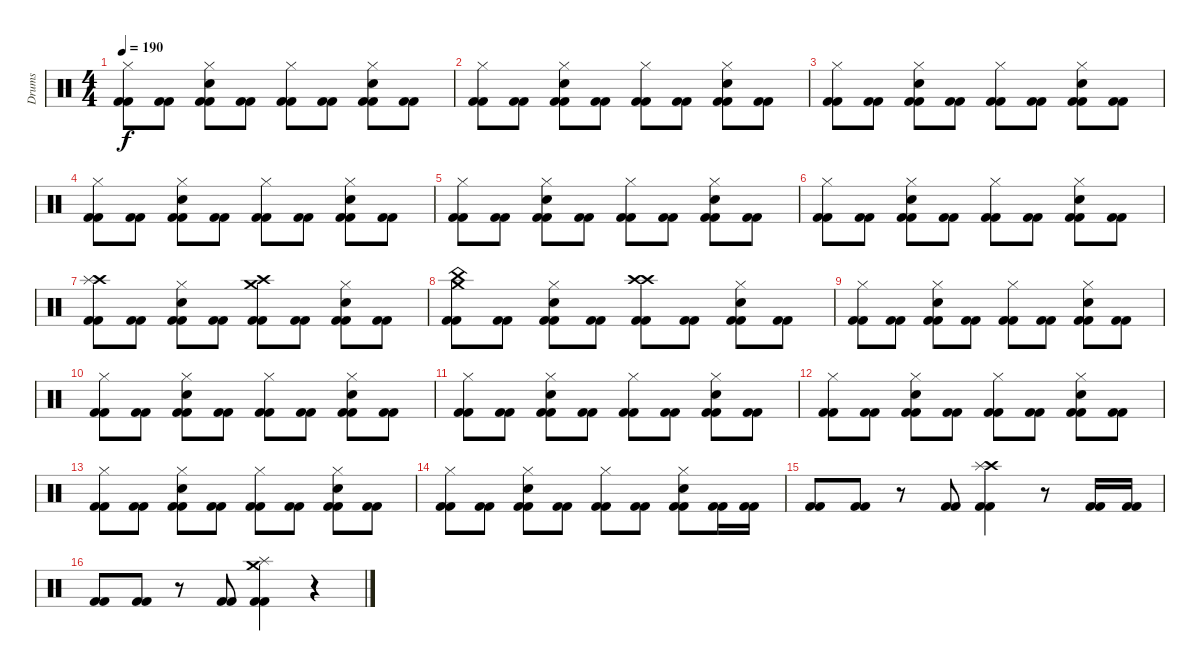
\track ("Drums" "Drums") {instrument percussion}
\staff {score}
\articulation defaults
\ts (4 4)
\tempo 190
\clef neutral
\ks c
("Hi-Hat (closed)" "Kick (hit) 2" "Kick (hit) 2").8{dy f} ("Kick (hit) 2" "Kick (hit) 2").8 ("Hi-Hat (closed)" "Snare (hit) 2" "Kick (hit) 2" "Kick (hit) 2").8 ("Kick (hit) 2" "Kick (hit) 2").8 ("Hi-Hat (closed)" "Kick (hit) 2" "Kick (hit) 2").8 ("Kick (hit) 2" "Kick (hit) 2").8 ("Hi-Hat (closed)" "Snare (hit) 2" "Kick (hit) 2" "Kick (hit) 2").8 ("Kick (hit) 2" "Kick (hit) 2").8 |
("Hi-Hat (closed)" "Kick (hit) 2" "Kick (hit) 2").8 ("Kick (hit) 2" "Kick (hit) 2").8 ("Hi-Hat (closed)" "Snare (hit) 2" "Kick (hit) 2" "Kick (hit) 2").8 ("Kick (hit) 2" "Kick (hit) 2").8 ("Hi-Hat (closed)" "Kick (hit) 2" "Kick (hit) 2").8 ("Kick (hit) 2" "Kick (hit) 2").8 ("Hi-Hat (closed)" "Snare (hit) 2" "Kick (hit) 2" "Kick (hit) 2").8 ("Kick (hit) 2" "Kick (hit) 2").8 |
("Hi-Hat (closed)" "Kick (hit) 2" "Kick (hit) 2").8 ("Kick (hit) 2" "Kick (hit) 2").8 ("Hi-Hat (closed)" "Snare (hit) 2" "Kick (hit) 2" "Kick (hit) 2").8 ("Kick (hit) 2" "Kick (hit) 2").8 ("Hi-Hat (closed)" "Kick (hit) 2" "Kick (hit) 2").8 ("Kick (hit) 2" "Kick (hit) 2").8 ("Hi-Hat (closed)" "Snare (hit) 2" "Kick (hit) 2" "Kick (hit) 2").8 ("Kick (hit) 2" "Kick (hit) 2").8 |
("Hi-Hat (closed)" "Kick (hit) 2" "Kick (hit) 2").8 ("Kick (hit) 2" "Kick (hit) 2").8 ("Hi-Hat (closed)" "Snare (hit) 2" "Kick (hit) 2" "Kick (hit) 2").8 ("Kick (hit) 2" "Kick (hit) 2").8 ("Hi-Hat (closed)" "Kick (hit) 2" "Kick (hit) 2").8 ("Kick (hit) 2" "Kick (hit) 2").8 ("Hi-Hat (closed)" "Snare (hit) 2" "Kick (hit) 2" "Kick (hit) 2").8 ("Kick (hit) 2" "Kick (hit) 2").8 |
("Hi-Hat (closed)" "Kick (hit) 2" "Kick (hit) 2").8 ("Kick (hit) 2" "Kick (hit) 2").8 ("Hi-Hat (closed)" "Snare (hit) 2" "Kick (hit) 2" "Kick (hit) 2").8 ("Kick (hit) 2" "Kick (hit) 2").8 ("Hi-Hat (closed)" "Kick (hit) 2" "Kick (hit) 2").8 ("Kick (hit) 2" "Kick (hit) 2").8 ("Hi-Hat (closed)" "Snare (hit) 2" "Kick (hit) 2" "Kick (hit) 2").8 ("Kick (hit) 2" "Kick (hit) 2").8 |
("Hi-Hat (closed)" "Kick (hit) 2" "Kick (hit) 2").8 ("Kick (hit) 2" "Kick (hit) 2").8 ("Hi-Hat (closed)" "Snare (hit) 2" "Kick (hit) 2" "Kick (hit) 2").8 ("Kick (hit) 2" "Kick (hit) 2").8 ("Hi-Hat (closed)" "Kick (hit) 2" "Kick (hit) 2").8 ("Kick (hit) 2" "Kick (hit) 2").8 ("Hi-Hat (closed)" "Snare (hit) 2" "Kick (hit) 2" "Kick (hit) 2").8 ("Kick (hit) 2" "Kick (hit) 2").8 |
("Crash high (hit)" "Splash (hit)" "Kick (hit) 2" "Kick (hit) 2").8 ("Kick (hit) 2" "Kick (hit) 2").8 ("Hi-Hat (closed)" "Snare (hit) 2" "Kick (hit) 2" "Kick (hit) 2").8 ("Kick (hit) 2" "Kick (hit) 2").8 ("Crash high (hit)" "Crash medium (hit)" "Kick (hit) 2" "Kick (hit) 2").8 ("Kick (hit) 2" "Kick (hit) 2").8 ("Hi-Hat (closed)" "Snare (hit) 2" "Kick (hit) 2" "Kick (hit) 2").8 ("Kick (hit) 2" "Kick (hit) 2").8 |
("China (hit)" "Crash medium (hit)" "Kick (hit) 2" "Kick (hit) 2").8 ("Kick (hit) 2" "Kick (hit) 2").8 ("Hi-Hat (closed)" "Snare (hit) 2" "Kick (hit) 2" "Kick (hit) 2").8 ("Kick (hit) 2" "Kick (hit) 2").8 ("Crash high (hit)" "Crash high (hit)" "Kick (hit) 2" "Kick (hit) 2").8 ("Kick (hit) 2" "Kick (hit) 2").8 ("Hi-Hat (closed)" "Snare (hit) 2" "Kick (hit) 2" "Kick (hit) 2").8 ("Kick (hit) 2" "Kick (hit) 2").8 |
("Hi-Hat (closed)" "Kick (hit) 2" "Kick (hit) 2").8 ("Kick (hit) 2" "Kick (hit) 2").8 ("Hi-Hat (closed)" "Snare (hit) 2" "Kick (hit) 2" "Kick (hit) 2").8 ("Kick (hit) 2" "Kick (hit) 2").8 ("Hi-Hat (closed)" "Kick (hit) 2" "Kick (hit) 2").8 ("Kick (hit) 2" "Kick (hit) 2").8 ("Hi-Hat (closed)" "Snare (hit) 2" "Kick (hit) 2" "Kick (hit) 2").8 ("Kick (hit) 2" "Kick (hit) 2").8 |
("Hi-Hat (closed)" "Kick (hit) 2" "Kick (hit) 2").8 ("Kick (hit) 2" "Kick (hit) 2").8 ("Hi-Hat (closed)" "Snare (hit) 2" "Kick (hit) 2" "Kick (hit) 2").8 ("Kick (hit) 2" "Kick (hit) 2").8 ("Hi-Hat (closed)" "Kick (hit) 2" "Kick (hit) 2").8 ("Kick (hit) 2" "Kick (hit) 2").8 ("Hi-Hat (closed)" "Snare (hit) 2" "Kick (hit) 2" "Kick (hit) 2").8 ("Kick (hit) 2" "Kick (hit) 2").8 |
("Hi-Hat (closed)" "Kick (hit) 2" "Kick (hit) 2").8 ("Kick (hit) 2" "Kick (hit) 2").8 ("Hi-Hat (closed)" "Snare (hit) 2" "Kick (hit) 2" "Kick (hit) 2").8 ("Kick (hit) 2" "Kick (hit) 2").8 ("Hi-Hat (closed)" "Kick (hit) 2" "Kick (hit) 2").8 ("Kick (hit) 2" "Kick (hit) 2").8 ("Hi-Hat (closed)" "Snare (hit) 2" "Kick (hit) 2" "Kick (hit) 2").8 ("Kick (hit) 2" "Kick (hit) 2").8 |
("Hi-Hat (closed)" "Kick (hit) 2" "Kick (hit) 2").8 ("Kick (hit) 2" "Kick (hit) 2").8 ("Hi-Hat (closed)" "Snare (hit) 2" "Kick (hit) 2" "Kick (hit) 2").8 ("Kick (hit) 2" "Kick (hit) 2").8 ("Hi-Hat (closed)" "Kick (hit) 2" "Kick (hit) 2").8 ("Kick (hit) 2" "Kick (hit) 2").8 ("Hi-Hat (closed)" "Snare (hit) 2" "Kick (hit) 2" "Kick (hit) 2").8 ("Kick (hit) 2" "Kick (hit) 2").8 |
("Hi-Hat (closed)" "Kick (hit) 2" "Kick (hit) 2").8 ("Kick (hit) 2" "Kick (hit) 2").8 ("Hi-Hat (closed)" "Snare (hit) 2" "Kick (hit) 2" "Kick (hit) 2").8 ("Kick (hit) 2" "Kick (hit) 2").8 ("Hi-Hat (closed)" "Kick (hit) 2" "Kick (hit) 2").8 ("Kick (hit) 2" "Kick (hit) 2").8 ("Hi-Hat (closed)" "Snare (hit) 2" "Kick (hit) 2" "Kick (hit) 2").8 ("Kick (hit) 2" "Kick (hit) 2").8 |
("Hi-Hat (closed)" "Kick (hit) 2" "Kick (hit) 2").8 ("Kick (hit) 2" "Kick (hit) 2").8 ("Hi-Hat (closed)" "Snare (hit) 2" "Kick (hit) 2" "Kick (hit) 2").8 ("Kick (hit) 2" "Kick (hit) 2").8 ("Hi-Hat (closed)" "Kick (hit) 2" "Kick (hit) 2").8 ("Kick (hit) 2" "Kick (hit) 2").8 ("Hi-Hat (closed)" "Snare (hit) 2" "Kick (hit) 2" "Kick (hit) 2").8 ("Kick (hit) 2" "Kick (hit) 2").16 ("Kick (hit) 2" "Kick (hit) 2").16 |
("Kick (hit) 2" "Kick (hit) 2").8 ("Kick (hit) 2" "Kick (hit) 2").8 r.8 ("Kick (hit) 2" "Kick (hit) 2").8 ("Crash high (hit)" "Splash (hit)" "Kick (hit) 2" "Kick (hit) 2").4 r.8 ("Kick (hit) 2" "Kick (hit) 2").16 ("Kick (hit) 2" "Kick (hit) 2").16 |
("Kick (hit) 2" "Kick (hit) 2").8 ("Kick (hit) 2" "Kick (hit) 2").8 r.8 ("Kick (hit) 2" "Kick (hit) 2").8 ("Splash (hit)" "Crash medium (hit)" "Kick (hit) 2" "Kick (hit) 2").4 r.4
